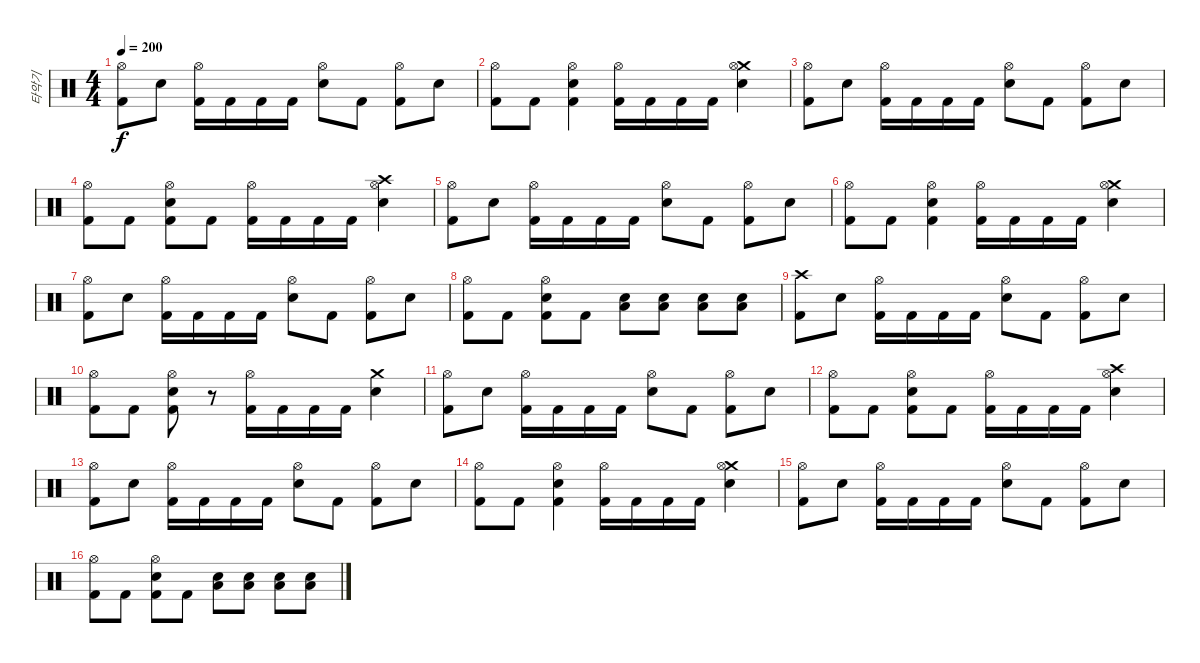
\track ("타악기" "타악기") {instrument percussion}
\staff {score}
\articulation defaults
\ts (4 4)
\tempo 200
\clef neutral
\ks c
("Hi-Hat (open)" "Kick (hit) 2").8{dy f} "Snare (hit) 2".8 ("Hi-Hat (open)" "Kick (hit) 2").16 "Kick (hit) 2".16 "Kick (hit) 2".16 "Kick (hit) 2".16 ("Hi-Hat (open)" "Snare (hit) 2").8 "Kick (hit) 2".8 ("Hi-Hat (open)" "Kick (hit) 2").8 "Snare (hit) 2".8 |
("Hi-Hat (open)" "Kick (hit) 2").8 "Kick (hit) 2".8 ("Hi-Hat (open)" "Snare (hit) 2" "Kick (hit) 2").4 ("Hi-Hat (open)" "Kick (hit) 2").16 "Kick (hit) 2".16 "Kick (hit) 2".16 "Kick (hit) 2".16 ("Crash medium (hit)" "Hi-Hat (open)" "Snare (hit) 2").4 |
("Hi-Hat (open)" "Kick (hit) 2").8 "Snare (hit) 2".8 ("Hi-Hat (open)" "Kick (hit) 2").16 "Kick (hit) 2".16 "Kick (hit) 2".16 "Kick (hit) 2".16 ("Hi-Hat (open)" "Snare (hit) 2").8 "Kick (hit) 2".8 ("Hi-Hat (open)" "Kick (hit) 2").8 "Snare (hit) 2".8 |
("Hi-Hat (open)" "Kick (hit) 2").8 "Kick (hit) 2".8 ("Hi-Hat (open)" "Snare (hit) 2" "Kick (hit) 2").8 "Kick (hit) 2".8 ("Hi-Hat (open)" "Kick (hit) 2").16 "Kick (hit) 2".16 "Kick (hit) 2".16 "Kick (hit) 2".16 ("Crash high (hit)" "Hi-Hat (open)" "Snare (hit) 2").4 |
("Hi-Hat (open)" "Kick (hit) 2").8 "Snare (hit) 2".8 ("Hi-Hat (open)" "Kick (hit) 2").16 "Kick (hit) 2".16 "Kick (hit) 2".16 "Kick (hit) 2".16 ("Hi-Hat (open)" "Snare (hit) 2").8 "Kick (hit) 2".8 ("Hi-Hat (open)" "Kick (hit) 2").8 "Snare (hit) 2".8 |
("Hi-Hat (open)" "Kick (hit) 2").8 "Kick (hit) 2".8 ("Hi-Hat (open)" "Snare (hit) 2" "Kick (hit) 2").4 ("Hi-Hat (open)" "Kick (hit) 2").16 "Kick (hit) 2".16 "Kick (hit) 2".16 "Kick (hit) 2".16 ("Crash medium (hit)" "Hi-Hat (open)" "Snare (hit) 2").4 |
("Hi-Hat (open)" "Kick (hit) 2").8 "Snare (hit) 2".8 ("Hi-Hat (open)" "Kick (hit) 2").16 "Kick (hit) 2".16 "Kick (hit) 2".16 "Kick (hit) 2".16 ("Hi-Hat (open)" "Snare (hit) 2").8 "Kick (hit) 2".8 ("Hi-Hat (open)" "Kick (hit) 2").8 "Snare (hit) 2".8 |
("Hi-Hat (open)" "Kick (hit) 2").8 "Kick (hit) 2".8 ("Hi-Hat (open)" "Snare (hit) 2" "Kick (hit) 2").8 "Kick (hit) 2".8 ("Low Tom (hit)" "Snare (hit) 2").8 ("Low Tom (hit)" "Snare (hit) 2").8 ("Low Tom (hit)" "Snare (hit) 2").8 ("Low Tom (hit)" "Snare (hit) 2").8 |
("Crash high (hit)" "Kick (hit) 2").8 "Snare (hit) 2".8 ("Hi-Hat (open)" "Kick (hit) 2").16 "Kick (hit) 2".16 "Kick (hit) 2".16 "Kick (hit) 2".16 ("Hi-Hat (open)" "Snare (hit) 2").8 "Kick (hit) 2".8 ("Hi-Hat (open)" "Kick (hit) 2").8 "Snare (hit) 2".8 |
("Hi-Hat (open)" "Kick (hit) 2").8 "Kick (hit) 2".8 ("Hi-Hat (open)" "Snare (hit) 2" "Kick (hit) 2").8 r.8 ("Hi-Hat (open)" "Kick (hit) 2").16 "Kick (hit) 2".16 "Kick (hit) 2".16 "Kick (hit) 2".16 ("Crash medium (hit)" "Snare (hit) 2").4 |
("Hi-Hat (open)" "Kick (hit) 2").8 "Snare (hit) 2".8 ("Hi-Hat (open)" "Kick (hit) 2").16 "Kick (hit) 2".16 "Kick (hit) 2".16 "Kick (hit) 2".16 ("Hi-Hat (open)" "Snare (hit) 2").8 "Kick (hit) 2".8 ("Hi-Hat (open)" "Kick (hit) 2").8 "Snare (hit) 2".8 |
("Hi-Hat (open)" "Kick (hit) 2").8 "Kick (hit) 2".8 ("Hi-Hat (open)" "Snare (hit) 2" "Kick (hit) 2").8 "Kick (hit) 2".8 ("Hi-Hat (open)" "Kick (hit) 2").16 "Kick (hit) 2".16 "Kick (hit) 2".16 "Kick (hit) 2".16 ("Crash high (hit)" "Hi-Hat (open)" "Snare (hit) 2").4 |
("Hi-Hat (open)" "Kick (hit) 2").8 "Snare (hit) 2".8 ("Hi-Hat (open)" "Kick (hit) 2").16 "Kick (hit) 2".16 "Kick (hit) 2".16 "Kick (hit) 2".16 ("Hi-Hat (open)" "Snare (hit) 2").8 "Kick (hit) 2".8 ("Hi-Hat (open)" "Kick (hit) 2").8 "Snare (hit) 2".8 |
("Hi-Hat (open)" "Kick (hit) 2").8 "Kick (hit) 2".8 ("Hi-Hat (open)" "Snare (hit) 2" "Kick (hit) 2").4 ("Hi-Hat (open)" "Kick (hit) 2").16 "Kick (hit) 2".16 "Kick (hit) 2".16 "Kick (hit) 2".16 ("Crash medium (hit)" "Hi-Hat (open)" "Snare (hit) 2").4 |
("Hi-Hat (open)" "Kick (hit) 2").8 "Snare (hit) 2".8 ("Hi-Hat (open)" "Kick (hit) 2").16 "Kick (hit) 2".16 "Kick (hit) 2".16 "Kick (hit) 2".16 ("Hi-Hat (open)" "Snare (hit) 2").8 "Kick (hit) 2".8 ("Hi-Hat (open)" "Kick (hit) 2").8 "Snare (hit) 2".8 |
("Hi-Hat (open)" "Kick (hit) 2").8 "Kick (hit) 2".8 ("Hi-Hat (open)" "Snare (hit) 2" "Kick (hit) 2").8 "Kick (hit) 2".8 ("Low Tom (hit)" "Snare (hit) 2").8 ("Low Tom (hit)" "Snare (hit) 2").8 ("Low Tom (hit)" "Snare (hit) 2").8 ("Low Tom (hit)" "Snare (hit) 2").8
